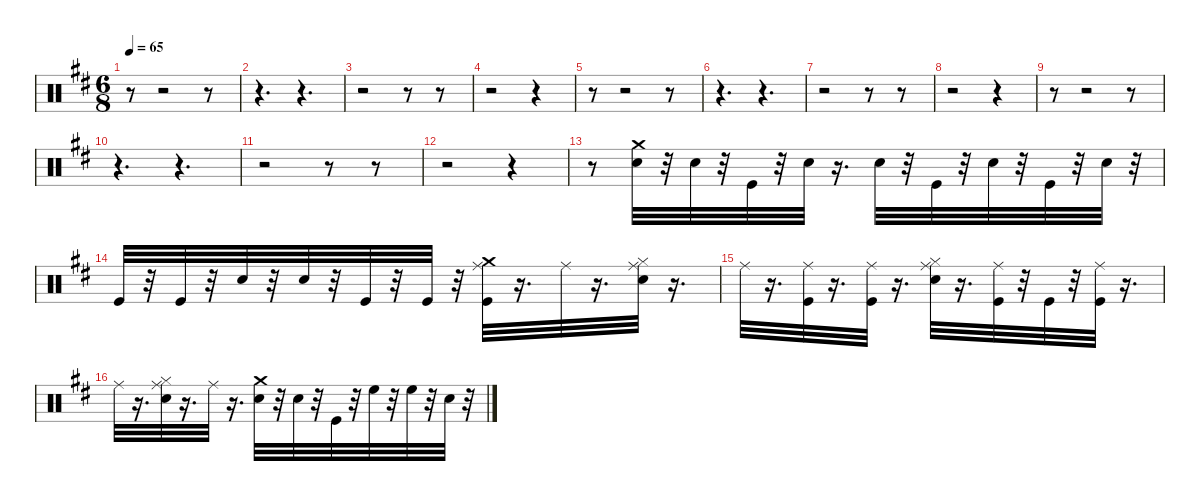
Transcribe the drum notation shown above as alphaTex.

\hideDynamics
\bracketExtendMode nobrackets
\singleTrackTrackNamePolicy hidden
\multiTrackTrackNamePolicy hidden
\firstSystemTrackNameMode fullname
\firstSystemTrackNameOrientation horizontal
\otherSystemsTrackNameOrientation horizontal
\track ("Drums" "drm.") {instrument percussion}
\staff {score}
\articulation defaults
\ts (6 8)
\beaming (8 3 3)
\tempo 65
\clef neutral
\ks bminor
r.8{dy fff beam Down} r.2{beam Down} r.8{beam Down} |
r.4{d beam Down} r.4{d beam Down} |
r.2{beam Down} r.8{beam Down} r.8{beam Down} |
r.2{beam Down} r.4{beam Down} |
r.8{beam Down} r.2{beam Down} r.8{beam Down} |
r.4{d beam Down} r.4{d beam Down} |
r.2{beam Down} r.8{beam Down} r.8{beam Down} |
r.2{beam Down} r.4{beam Down} |
r.8{beam Down} r.2{beam Down} r.8{beam Down} |
r.4{d beam Down} r.4{d beam Down} |
r.2{beam Down} r.8{beam Down} r.8{beam Down} |
r.2{beam Down} r.4{beam Down} |
r.8{beam Down} ("Electric Snare (hit)"{acc forcenatural} "Crash medium (hit)"{acc forcenatural}).32{beam Down} r.32{beam Down} "Electric Snare (hit)"{acc forcenatural}.32{dy pp beam Down} r.32{beam Down} "Kick (hit)"{acc forcenatural}.32{dy f beam Up} r.32{beam Up} "Electric Snare (hit)"{acc forcenatural}.32{beam Down} r.16{d beam Down} "Electric Snare (hit)"{acc forcenatural}.32{dy p beam Down} r.32{beam Down} "Kick (hit)"{acc forcenatural}.32{dy f beam Up} r.32{beam Up} "Electric Snare (hit)"{acc forcenatural}.32{dy mp beam Down} r.32{beam Down} "Kick (hit)"{acc forcenatural}.32{dy f beam Up} r.32{beam Up} "Electric Snare (hit)"{acc forcenatural}.32{dy mf beam Down} r.32{beam Down} |
"Kick (hit)"{acc forcenatural}.32{dy f beam Up} r.32{beam Up} "Kick (hit)"{acc forcenatural}.32{beam Up} r.32{beam Up} "Electric Snare (hit)"{acc forcenatural}.32{dy fff beam Down} r.32{beam Down} "Electric Snare (hit)"{acc forcenatural}.32{dy mf beam Down} r.32{beam Down} "Kick (hit)"{acc forcenatural}.32{dy f beam Up} r.32{beam Up} "Kick (hit)"{acc forcenatural}.32{beam Up} r.32{beam Up} ("Crash medium (hit)"{acc forcenatural} "Kick (hit)"{acc forcenatural} "Ride (middle)"{acc #}).32{dy fff beam Down} r.16{d beam Down} "Ride (middle)"{acc #}.32{dy f beam Down} r.16{d beam Down} ("Electric Snare (hit)"{acc forcenatural} "Hi-Hat (closed)"{acc #} "Ride (middle)"{acc #}).32{dy fff beam Down} r.16{d beam Down} |
"Ride (middle)"{acc #}.32{dy f beam Down} r.16{d beam Down} ("Kick (hit)"{acc forcenatural} "Ride (middle)"{acc #}).32{dy fff beam Down} r.16{d beam Down} ("Kick (hit)"{acc forcenatural} "Ride (middle)"{acc #}).32{dy f beam Down} r.16{d beam Down} ("Electric Snare (hit)"{acc forcenatural} "Hi-Hat (closed)"{acc #} "Ride (middle)"{acc #}).32{dy fff beam Down} r.16{d beam Down} ("Kick (hit)"{acc forcenatural} "Ride (middle)"{acc #}).32{dy mp beam Down} r.32{beam Down} "Kick (hit)"{acc forcenatural}.32{dy mf beam Up} r.32{beam Up} ("Kick (hit)"{acc forcenatural} "Ride (middle)"{acc #}).32{dy fff beam Up} r.16{d beam Up} |
"Ride (middle)"{acc #}.32{dy f beam Down} r.16{d beam Down} ("Electric Snare (hit)"{acc forcenatural} "Hi-Hat (closed)"{acc #} "Ride (middle)"{acc #}).32{dy fff beam Down} r.16{d beam Down} "Ride (middle)"{acc #}.32{beam Down} r.16{d beam Down} ("Electric Snare (hit)"{acc forcenatural} "Crash medium (hit)"{acc forcenatural}).32{beam Down} r.32{beam Down} "Electric Snare (hit)"{acc forcenatural}.32{dy p beam Down} r.32{beam Down} "Kick (hit)"{acc forcenatural}.32{dy f beam Up} r.32{beam Up} "High Floor Tom (hit)"{acc forcenatural}.32{dy mf beam Down} r.32{beam Down} "High Floor Tom (hit)"{acc forcenatural}.32{dy fff beam Down} r.32{beam Down} "Electric Snare (hit)"{acc forcenatural}.32{dy pp beam Down} r.32{beam Down}
